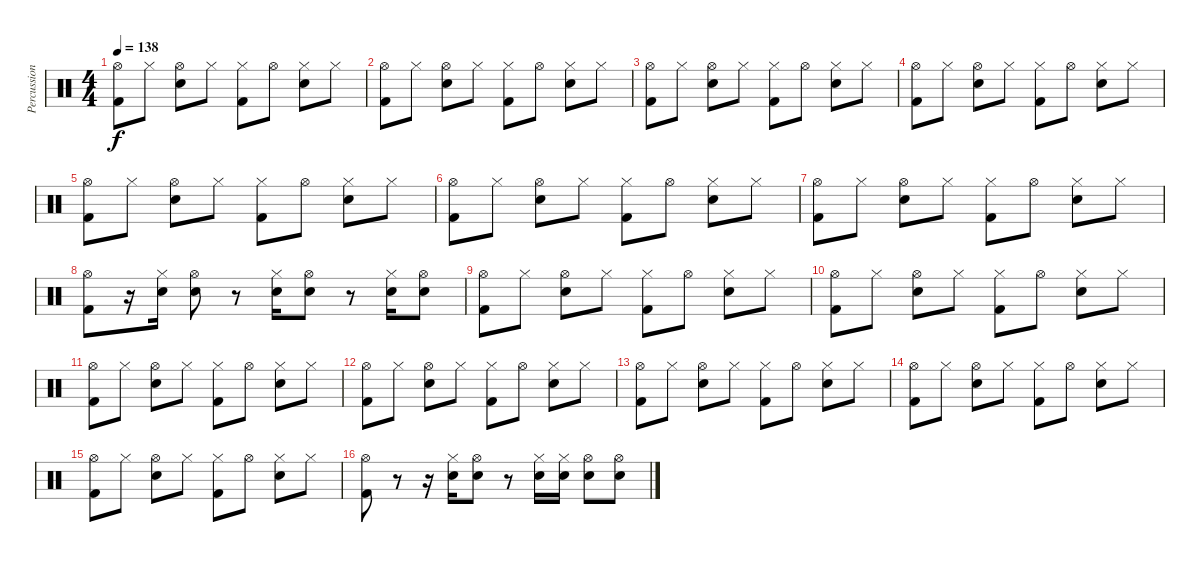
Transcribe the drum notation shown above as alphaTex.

\track ("Percussions" "Percussion") {instrument percussion}
\staff {score}
\articulation defaults
\ts (4 4)
\tempo 138
\clef neutral
\ks c
("Hi-Hat (open)" "Kick (hit) 2").8{dy f} "Hi-Hat (closed)".8 ("Hi-Hat (open)" "Snare (hit) 2").8 "Hi-Hat (closed)".8 ("Hi-Hat (closed)" "Kick (hit) 2").8 "Hi-Hat (open)".8 ("Hi-Hat (closed)" "Snare (hit) 2").8 "Hi-Hat (closed)".8 |
("Hi-Hat (open)" "Kick (hit) 2").8 "Hi-Hat (closed)".8 ("Hi-Hat (open)" "Snare (hit) 2").8 "Hi-Hat (closed)".8 ("Hi-Hat (closed)" "Kick (hit) 2").8 "Hi-Hat (open)".8 ("Hi-Hat (closed)" "Snare (hit) 2").8 "Hi-Hat (closed)".8 |
("Hi-Hat (open)" "Kick (hit) 2").8 "Hi-Hat (closed)".8 ("Hi-Hat (open)" "Snare (hit) 2").8 "Hi-Hat (closed)".8 ("Hi-Hat (closed)" "Kick (hit) 2").8 "Hi-Hat (open)".8 ("Hi-Hat (closed)" "Snare (hit) 2").8 "Hi-Hat (closed)".8 |
("Hi-Hat (open)" "Kick (hit) 2").8 "Hi-Hat (closed)".8 ("Hi-Hat (open)" "Snare (hit) 2").8 "Hi-Hat (closed)".8 ("Hi-Hat (closed)" "Kick (hit) 2").8 "Hi-Hat (open)".8 ("Hi-Hat (closed)" "Snare (hit) 2").8 "Hi-Hat (closed)".8 |
("Hi-Hat (open)" "Kick (hit) 2").8 "Hi-Hat (closed)".8 ("Hi-Hat (open)" "Snare (hit) 2").8 "Hi-Hat (closed)".8 ("Hi-Hat (closed)" "Kick (hit) 2").8 "Hi-Hat (open)".8 ("Hi-Hat (closed)" "Snare (hit) 2").8 "Hi-Hat (closed)".8 |
("Hi-Hat (open)" "Kick (hit) 2").8 "Hi-Hat (closed)".8 ("Hi-Hat (open)" "Snare (hit) 2").8 "Hi-Hat (closed)".8 ("Hi-Hat (closed)" "Kick (hit) 2").8 "Hi-Hat (open)".8 ("Hi-Hat (closed)" "Snare (hit) 2").8 "Hi-Hat (closed)".8 |
("Hi-Hat (open)" "Kick (hit) 2").8 "Hi-Hat (closed)".8 ("Hi-Hat (open)" "Snare (hit) 2").8 "Hi-Hat (closed)".8 ("Hi-Hat (closed)" "Kick (hit) 2").8 "Hi-Hat (open)".8 ("Hi-Hat (closed)" "Snare (hit) 2").8 "Hi-Hat (closed)".8 |
("Hi-Hat (open)" "Kick (hit) 2").8 r.16 ("Hi-Hat (closed)" "Snare (hit) 2").16 ("Hi-Hat (open)" "Snare (hit) 2").8 r.8 ("Hi-Hat (closed)" "Snare (hit) 2").16 ("Hi-Hat (open)" "Snare (hit) 2").8 r.8 ("Hi-Hat (closed)" "Snare (hit) 2").16 ("Hi-Hat (open)" "Snare (hit) 2").8 |
("Hi-Hat (open)" "Kick (hit) 2").8 "Hi-Hat (closed)".8 ("Hi-Hat (open)" "Snare (hit) 2").8 "Hi-Hat (closed)".8 ("Hi-Hat (closed)" "Kick (hit) 2").8 "Hi-Hat (open)".8 ("Hi-Hat (closed)" "Snare (hit) 2").8 "Hi-Hat (closed)".8 |
("Hi-Hat (open)" "Kick (hit) 2").8 "Hi-Hat (closed)".8 ("Hi-Hat (open)" "Snare (hit) 2").8 "Hi-Hat (closed)".8 ("Hi-Hat (closed)" "Kick (hit) 2").8 "Hi-Hat (open)".8 ("Hi-Hat (closed)" "Snare (hit) 2").8 "Hi-Hat (closed)".8 |
("Hi-Hat (open)" "Kick (hit) 2").8 "Hi-Hat (closed)".8 ("Hi-Hat (open)" "Snare (hit) 2").8 "Hi-Hat (closed)".8 ("Hi-Hat (closed)" "Kick (hit) 2").8 "Hi-Hat (open)".8 ("Hi-Hat (closed)" "Snare (hit) 2").8 "Hi-Hat (closed)".8 |
("Hi-Hat (open)" "Kick (hit) 2").8 "Hi-Hat (closed)".8 ("Hi-Hat (open)" "Snare (hit) 2").8 "Hi-Hat (closed)".8 ("Hi-Hat (closed)" "Kick (hit) 2").8 "Hi-Hat (open)".8 ("Hi-Hat (closed)" "Snare (hit) 2").8 "Hi-Hat (closed)".8 |
("Hi-Hat (open)" "Kick (hit) 2").8 "Hi-Hat (closed)".8 ("Hi-Hat (open)" "Snare (hit) 2").8 "Hi-Hat (closed)".8 ("Hi-Hat (closed)" "Kick (hit) 2").8 "Hi-Hat (open)".8 ("Hi-Hat (closed)" "Snare (hit) 2").8 "Hi-Hat (closed)".8 |
("Hi-Hat (open)" "Kick (hit) 2").8 "Hi-Hat (closed)".8 ("Hi-Hat (open)" "Snare (hit) 2").8 "Hi-Hat (closed)".8 ("Hi-Hat (closed)" "Kick (hit) 2").8 "Hi-Hat (open)".8 ("Hi-Hat (closed)" "Snare (hit) 2").8 "Hi-Hat (closed)".8 |
("Hi-Hat (open)" "Kick (hit) 2").8 "Hi-Hat (closed)".8 ("Hi-Hat (open)" "Snare (hit) 2").8 "Hi-Hat (closed)".8 ("Hi-Hat (closed)" "Kick (hit) 2").8 "Hi-Hat (open)".8 ("Hi-Hat (closed)" "Snare (hit) 2").8 "Hi-Hat (closed)".8 |
("Hi-Hat (open)" "Kick (hit) 2").8 r.8 r.16 ("Hi-Hat (closed)" "Snare (hit) 2").16 ("Hi-Hat (open)" "Snare (hit) 2").8 r.8 ("Hi-Hat (closed)" "Snare (hit) 2").16 ("Hi-Hat (closed)" "Snare (hit) 2").16 ("Hi-Hat (open)" "Snare (hit) 2").8 ("Hi-Hat (open)" "Snare (hit) 2").8
